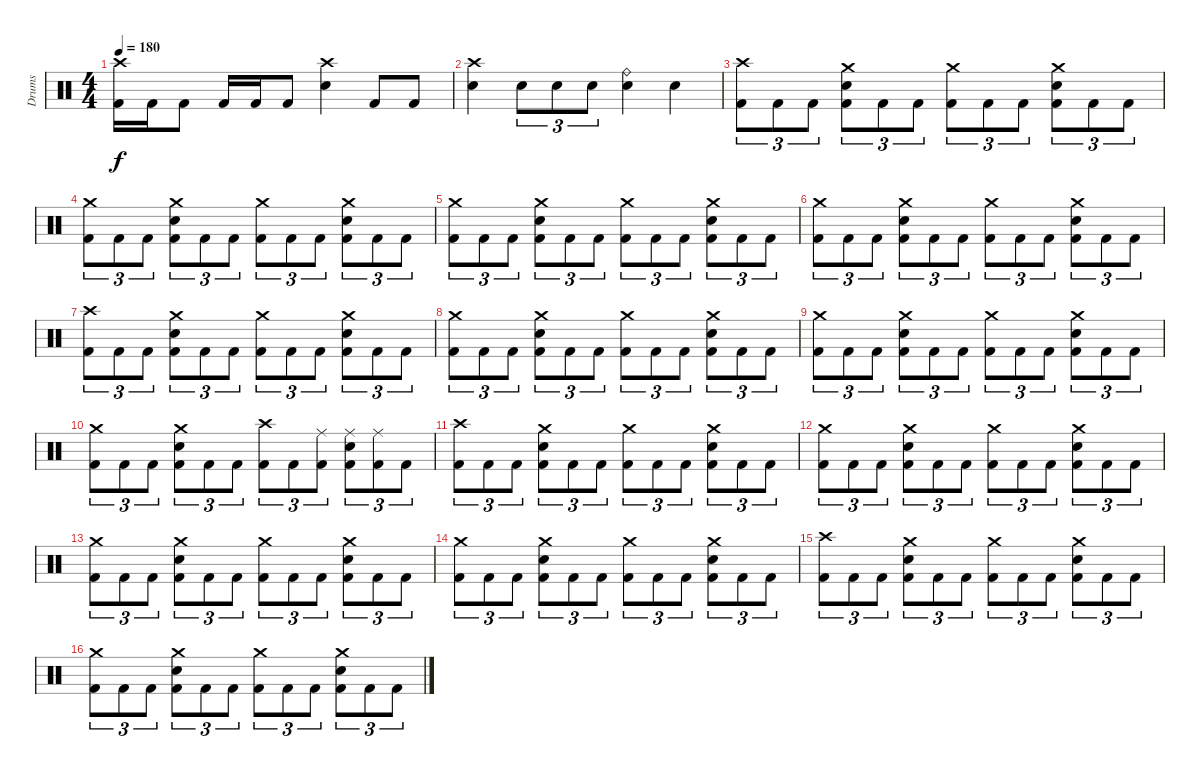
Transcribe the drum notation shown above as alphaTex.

\track ("Drums" "Drums") {instrument percussion}
\staff {score}
\articulation defaults
\ts (4 4)
\tempo 180
\clef neutral
\ks c
("Crash high (hit)" "Kick (hit) 2").16{dy f} "Kick (hit) 2".16 "Kick (hit) 2".8 "Kick (hit) 2".16 "Kick (hit) 2".16 "Kick (hit) 2".8 ("Crash high (hit)" "Electric Snare (hit)").4 "Kick (hit) 2".8 "Kick (hit) 2".8 |
("Crash high (hit)" "Electric Snare (hit)").4 "Electric Snare (hit)".8{tu (3 2)} "Electric Snare (hit)".8{tu (3 2)} "Electric Snare (hit)".8{tu (3 2)} ("Ride (bell)" "Electric Snare (hit)").4 "Electric Snare (hit)".4 |
("Crash high (hit)" "Kick (hit) 2").8{tu (3 2)} "Kick (hit) 2".8{tu (3 2)} "Kick (hit) 2".8{tu (3 2)} ("Crash medium (hit)" "Electric Snare (hit)" "Kick (hit) 2").8{tu (3 2)} "Kick (hit) 2".8{tu (3 2)} "Kick (hit) 2".8{tu (3 2)} ("Crash medium (hit)" "Kick (hit) 2").8{tu (3 2)} "Kick (hit) 2".8{tu (3 2)} "Kick (hit) 2".8{tu (3 2)} ("Crash medium (hit)" "Electric Snare (hit)" "Kick (hit) 2").8{tu (3 2)} "Kick (hit) 2".8{tu (3 2)} "Kick (hit) 2".8{tu (3 2)} |
("Crash medium (hit)" "Kick (hit) 2").8{tu (3 2)} "Kick (hit) 2".8{tu (3 2)} "Kick (hit) 2".8{tu (3 2)} ("Crash medium (hit)" "Electric Snare (hit)" "Kick (hit) 2").8{tu (3 2)} "Kick (hit) 2".8{tu (3 2)} "Kick (hit) 2".8{tu (3 2)} ("Crash medium (hit)" "Kick (hit) 2").8{tu (3 2)} "Kick (hit) 2".8{tu (3 2)} "Kick (hit) 2".8{tu (3 2)} ("Crash medium (hit)" "Electric Snare (hit)" "Kick (hit) 2").8{tu (3 2)} "Kick (hit) 2".8{tu (3 2)} "Kick (hit) 2".8{tu (3 2)} |
("Crash medium (hit)" "Kick (hit) 2").8{tu (3 2)} "Kick (hit) 2".8{tu (3 2)} "Kick (hit) 2".8{tu (3 2)} ("Crash medium (hit)" "Electric Snare (hit)" "Kick (hit) 2").8{tu (3 2)} "Kick (hit) 2".8{tu (3 2)} "Kick (hit) 2".8{tu (3 2)} ("Crash medium (hit)" "Kick (hit) 2").8{tu (3 2)} "Kick (hit) 2".8{tu (3 2)} "Kick (hit) 2".8{tu (3 2)} ("Crash medium (hit)" "Electric Snare (hit)" "Kick (hit) 2").8{tu (3 2)} "Kick (hit) 2".8{tu (3 2)} "Kick (hit) 2".8{tu (3 2)} |
("Crash medium (hit)" "Kick (hit) 2").8{tu (3 2)} "Kick (hit) 2".8{tu (3 2)} "Kick (hit) 2".8{tu (3 2)} ("Crash medium (hit)" "Electric Snare (hit)" "Kick (hit) 2").8{tu (3 2)} "Kick (hit) 2".8{tu (3 2)} "Kick (hit) 2".8{tu (3 2)} ("Crash medium (hit)" "Kick (hit) 2").8{tu (3 2)} "Kick (hit) 2".8{tu (3 2)} "Kick (hit) 2".8{tu (3 2)} ("Crash medium (hit)" "Electric Snare (hit)" "Kick (hit) 2").8{tu (3 2)} "Kick (hit) 2".8{tu (3 2)} "Kick (hit) 2".8{tu (3 2)} |
("Crash high (hit)" "Kick (hit) 2").8{tu (3 2)} "Kick (hit) 2".8{tu (3 2)} "Kick (hit) 2".8{tu (3 2)} ("Crash medium (hit)" "Electric Snare (hit)" "Kick (hit) 2").8{tu (3 2)} "Kick (hit) 2".8{tu (3 2)} "Kick (hit) 2".8{tu (3 2)} ("Crash medium (hit)" "Kick (hit) 2").8{tu (3 2)} "Kick (hit) 2".8{tu (3 2)} "Kick (hit) 2".8{tu (3 2)} ("Crash medium (hit)" "Electric Snare (hit)" "Kick (hit) 2").8{tu (3 2)} "Kick (hit) 2".8{tu (3 2)} "Kick (hit) 2".8{tu (3 2)} |
("Crash medium (hit)" "Kick (hit) 2").8{tu (3 2)} "Kick (hit) 2".8{tu (3 2)} "Kick (hit) 2".8{tu (3 2)} ("Crash medium (hit)" "Electric Snare (hit)" "Kick (hit) 2").8{tu (3 2)} "Kick (hit) 2".8{tu (3 2)} "Kick (hit) 2".8{tu (3 2)} ("Crash medium (hit)" "Kick (hit) 2").8{tu (3 2)} "Kick (hit) 2".8{tu (3 2)} "Kick (hit) 2".8{tu (3 2)} ("Crash medium (hit)" "Electric Snare (hit)" "Kick (hit) 2").8{tu (3 2)} "Kick (hit) 2".8{tu (3 2)} "Kick (hit) 2".8{tu (3 2)} |
("Crash medium (hit)" "Kick (hit) 2").8{tu (3 2)} "Kick (hit) 2".8{tu (3 2)} "Kick (hit) 2".8{tu (3 2)} ("Crash medium (hit)" "Electric Snare (hit)" "Kick (hit) 2").8{tu (3 2)} "Kick (hit) 2".8{tu (3 2)} "Kick (hit) 2".8{tu (3 2)} ("Crash medium (hit)" "Kick (hit) 2").8{tu (3 2)} "Kick (hit) 2".8{tu (3 2)} "Kick (hit) 2".8{tu (3 2)} ("Crash medium (hit)" "Electric Snare (hit)" "Kick (hit) 2").8{tu (3 2)} "Kick (hit) 2".8{tu (3 2)} "Kick (hit) 2".8{tu (3 2)} |
("Crash medium (hit)" "Kick (hit) 2").8{tu (3 2)} "Kick (hit) 2".8{tu (3 2)} "Kick (hit) 2".8{tu (3 2)} ("Crash medium (hit)" "Electric Snare (hit)" "Kick (hit) 2").8{tu (3 2)} "Kick (hit) 2".8{tu (3 2)} "Kick (hit) 2".8{tu (3 2)} ("Crash high (hit)" "Kick (hit) 2").8{tu (3 2)} "Kick (hit) 2".8{tu (3 2)} ("Ride (middle)" "Kick (hit) 2").8{tu (3 2)} ("Ride (middle)" "Electric Snare (hit)" "Kick (hit) 2").8{tu (3 2)} ("Ride (middle)" "Kick (hit) 2").8{tu (3 2)} "Kick (hit) 2".8{tu (3 2)} |
("Crash high (hit)" "Kick (hit) 2").8{tu (3 2)} "Kick (hit) 2".8{tu (3 2)} "Kick (hit) 2".8{tu (3 2)} ("Crash medium (hit)" "Electric Snare (hit)" "Kick (hit) 2").8{tu (3 2)} "Kick (hit) 2".8{tu (3 2)} "Kick (hit) 2".8{tu (3 2)} ("Crash medium (hit)" "Kick (hit) 2").8{tu (3 2)} "Kick (hit) 2".8{tu (3 2)} "Kick (hit) 2".8{tu (3 2)} ("Crash medium (hit)" "Electric Snare (hit)" "Kick (hit) 2").8{tu (3 2)} "Kick (hit) 2".8{tu (3 2)} "Kick (hit) 2".8{tu (3 2)} |
("Crash medium (hit)" "Kick (hit) 2").8{tu (3 2)} "Kick (hit) 2".8{tu (3 2)} "Kick (hit) 2".8{tu (3 2)} ("Crash medium (hit)" "Electric Snare (hit)" "Kick (hit) 2").8{tu (3 2)} "Kick (hit) 2".8{tu (3 2)} "Kick (hit) 2".8{tu (3 2)} ("Crash medium (hit)" "Kick (hit) 2").8{tu (3 2)} "Kick (hit) 2".8{tu (3 2)} "Kick (hit) 2".8{tu (3 2)} ("Crash medium (hit)" "Electric Snare (hit)" "Kick (hit) 2").8{tu (3 2)} "Kick (hit) 2".8{tu (3 2)} "Kick (hit) 2".8{tu (3 2)} |
("Crash medium (hit)" "Kick (hit) 2").8{tu (3 2)} "Kick (hit) 2".8{tu (3 2)} "Kick (hit) 2".8{tu (3 2)} ("Crash medium (hit)" "Electric Snare (hit)" "Kick (hit) 2").8{tu (3 2)} "Kick (hit) 2".8{tu (3 2)} "Kick (hit) 2".8{tu (3 2)} ("Crash medium (hit)" "Kick (hit) 2").8{tu (3 2)} "Kick (hit) 2".8{tu (3 2)} "Kick (hit) 2".8{tu (3 2)} ("Crash medium (hit)" "Electric Snare (hit)" "Kick (hit) 2").8{tu (3 2)} "Kick (hit) 2".8{tu (3 2)} "Kick (hit) 2".8{tu (3 2)} |
("Crash medium (hit)" "Kick (hit) 2").8{tu (3 2)} "Kick (hit) 2".8{tu (3 2)} "Kick (hit) 2".8{tu (3 2)} ("Crash medium (hit)" "Electric Snare (hit)" "Kick (hit) 2").8{tu (3 2)} "Kick (hit) 2".8{tu (3 2)} "Kick (hit) 2".8{tu (3 2)} ("Crash medium (hit)" "Kick (hit) 2").8{tu (3 2)} "Kick (hit) 2".8{tu (3 2)} "Kick (hit) 2".8{tu (3 2)} ("Crash medium (hit)" "Electric Snare (hit)" "Kick (hit) 2").8{tu (3 2)} "Kick (hit) 2".8{tu (3 2)} "Kick (hit) 2".8{tu (3 2)} |
("Crash high (hit)" "Kick (hit) 2").8{tu (3 2)} "Kick (hit) 2".8{tu (3 2)} "Kick (hit) 2".8{tu (3 2)} ("Crash medium (hit)" "Electric Snare (hit)" "Kick (hit) 2").8{tu (3 2)} "Kick (hit) 2".8{tu (3 2)} "Kick (hit) 2".8{tu (3 2)} ("Crash medium (hit)" "Kick (hit) 2").8{tu (3 2)} "Kick (hit) 2".8{tu (3 2)} "Kick (hit) 2".8{tu (3 2)} ("Crash medium (hit)" "Electric Snare (hit)" "Kick (hit) 2").8{tu (3 2)} "Kick (hit) 2".8{tu (3 2)} "Kick (hit) 2".8{tu (3 2)} |
("Crash medium (hit)" "Kick (hit) 2").8{tu (3 2)} "Kick (hit) 2".8{tu (3 2)} "Kick (hit) 2".8{tu (3 2)} ("Crash medium (hit)" "Electric Snare (hit)" "Kick (hit) 2").8{tu (3 2)} "Kick (hit) 2".8{tu (3 2)} "Kick (hit) 2".8{tu (3 2)} ("Crash medium (hit)" "Kick (hit) 2").8{tu (3 2)} "Kick (hit) 2".8{tu (3 2)} "Kick (hit) 2".8{tu (3 2)} ("Crash medium (hit)" "Electric Snare (hit)" "Kick (hit) 2").8{tu (3 2)} "Kick (hit) 2".8{tu (3 2)} "Kick (hit) 2".8{tu (3 2)}
